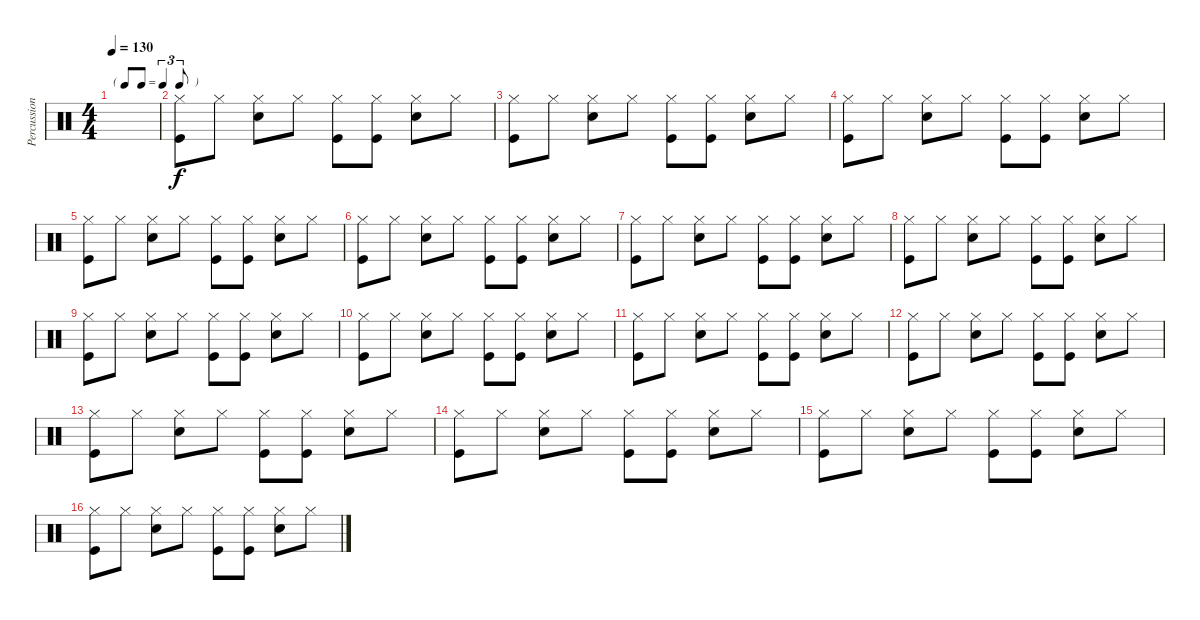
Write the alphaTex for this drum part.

\track ("Percussion" "Percussion") {instrument percussion}
\staff {score}
\articulation defaults
\ts (4 4)
\tf triplet8th
\tempo 130
\clef neutral
\ks c
|
("Hi-Hat (closed)" "Kick (hit)").8 "Hi-Hat (closed)".8 ("Hi-Hat (closed)" "Snare (hit) 2").8 "Hi-Hat (closed)".8 ("Hi-Hat (closed)" "Kick (hit)").8 ("Hi-Hat (closed)" "Kick (hit)").8 ("Hi-Hat (closed)" "Snare (hit) 2").8 "Hi-Hat (closed)".8 |
("Hi-Hat (closed)" "Kick (hit)").8 "Hi-Hat (closed)".8 ("Hi-Hat (closed)" "Snare (hit) 2").8 "Hi-Hat (closed)".8 ("Hi-Hat (closed)" "Kick (hit)").8 ("Hi-Hat (closed)" "Kick (hit)").8 ("Hi-Hat (closed)" "Snare (hit) 2").8 "Hi-Hat (closed)".8 |
("Hi-Hat (closed)" "Kick (hit)").8 "Hi-Hat (closed)".8 ("Hi-Hat (closed)" "Snare (hit) 2").8 "Hi-Hat (closed)".8 ("Hi-Hat (closed)" "Kick (hit)").8 ("Hi-Hat (closed)" "Kick (hit)").8 ("Hi-Hat (closed)" "Snare (hit) 2").8 "Hi-Hat (closed)".8 |
("Hi-Hat (closed)" "Kick (hit)").8 "Hi-Hat (closed)".8 ("Hi-Hat (closed)" "Snare (hit) 2").8 "Hi-Hat (closed)".8 ("Hi-Hat (closed)" "Kick (hit)").8 ("Hi-Hat (closed)" "Kick (hit)").8 ("Hi-Hat (closed)" "Snare (hit) 2").8 "Hi-Hat (closed)".8 |
("Hi-Hat (closed)" "Kick (hit)").8 "Hi-Hat (closed)".8 ("Hi-Hat (closed)" "Snare (hit) 2").8 "Hi-Hat (closed)".8 ("Hi-Hat (closed)" "Kick (hit)").8 ("Hi-Hat (closed)" "Kick (hit)").8 ("Hi-Hat (closed)" "Snare (hit) 2").8 "Hi-Hat (closed)".8 |
("Hi-Hat (closed)" "Kick (hit)").8 "Hi-Hat (closed)".8 ("Hi-Hat (closed)" "Snare (hit) 2").8 "Hi-Hat (closed)".8 ("Hi-Hat (closed)" "Kick (hit)").8 ("Hi-Hat (closed)" "Kick (hit)").8 ("Hi-Hat (closed)" "Snare (hit) 2").8 "Hi-Hat (closed)".8 |
("Hi-Hat (closed)" "Kick (hit)").8 "Hi-Hat (closed)".8 ("Hi-Hat (closed)" "Snare (hit) 2").8 "Hi-Hat (closed)".8 ("Hi-Hat (closed)" "Kick (hit)").8 ("Hi-Hat (closed)" "Kick (hit)").8 ("Hi-Hat (closed)" "Snare (hit) 2").8 "Hi-Hat (closed)".8 |
("Hi-Hat (closed)" "Kick (hit)").8 "Hi-Hat (closed)".8 ("Hi-Hat (closed)" "Snare (hit) 2").8 "Hi-Hat (closed)".8 ("Hi-Hat (closed)" "Kick (hit)").8 ("Hi-Hat (closed)" "Kick (hit)").8 ("Hi-Hat (closed)" "Snare (hit) 2").8 "Hi-Hat (closed)".8 |
("Hi-Hat (closed)" "Kick (hit)").8 "Hi-Hat (closed)".8 ("Hi-Hat (closed)" "Snare (hit) 2").8 "Hi-Hat (closed)".8 ("Hi-Hat (closed)" "Kick (hit)").8 ("Hi-Hat (closed)" "Kick (hit)").8 ("Hi-Hat (closed)" "Snare (hit) 2").8 "Hi-Hat (closed)".8 |
("Hi-Hat (closed)" "Kick (hit)").8 "Hi-Hat (closed)".8 ("Hi-Hat (closed)" "Snare (hit) 2").8 "Hi-Hat (closed)".8 ("Hi-Hat (closed)" "Kick (hit)").8 ("Hi-Hat (closed)" "Kick (hit)").8 ("Hi-Hat (closed)" "Snare (hit) 2").8 "Hi-Hat (closed)".8 |
("Hi-Hat (closed)" "Kick (hit)").8 "Hi-Hat (closed)".8 ("Hi-Hat (closed)" "Snare (hit) 2").8 "Hi-Hat (closed)".8 ("Hi-Hat (closed)" "Kick (hit)").8 ("Hi-Hat (closed)" "Kick (hit)").8 ("Hi-Hat (closed)" "Snare (hit) 2").8 "Hi-Hat (closed)".8 |
("Hi-Hat (closed)" "Kick (hit)").8 "Hi-Hat (closed)".8 ("Hi-Hat (closed)" "Snare (hit) 2").8 "Hi-Hat (closed)".8 ("Hi-Hat (closed)" "Kick (hit)").8 ("Hi-Hat (closed)" "Kick (hit)").8 ("Hi-Hat (closed)" "Snare (hit) 2").8 "Hi-Hat (closed)".8 |
("Hi-Hat (closed)" "Kick (hit)").8 "Hi-Hat (closed)".8 ("Hi-Hat (closed)" "Snare (hit) 2").8 "Hi-Hat (closed)".8 ("Hi-Hat (closed)" "Kick (hit)").8 ("Hi-Hat (closed)" "Kick (hit)").8 ("Hi-Hat (closed)" "Snare (hit) 2").8 "Hi-Hat (closed)".8 |
("Hi-Hat (closed)" "Kick (hit)").8 "Hi-Hat (closed)".8 ("Hi-Hat (closed)" "Snare (hit) 2").8 "Hi-Hat (closed)".8 ("Hi-Hat (closed)" "Kick (hit)").8 ("Hi-Hat (closed)" "Kick (hit)").8 ("Hi-Hat (closed)" "Snare (hit) 2").8 "Hi-Hat (closed)".8 |
("Hi-Hat (closed)" "Kick (hit)").8 "Hi-Hat (closed)".8 ("Hi-Hat (closed)" "Snare (hit) 2").8 "Hi-Hat (closed)".8 ("Hi-Hat (closed)" "Kick (hit)").8 ("Hi-Hat (closed)" "Kick (hit)").8 ("Hi-Hat (closed)" "Snare (hit) 2").8 "Hi-Hat (closed)".8
